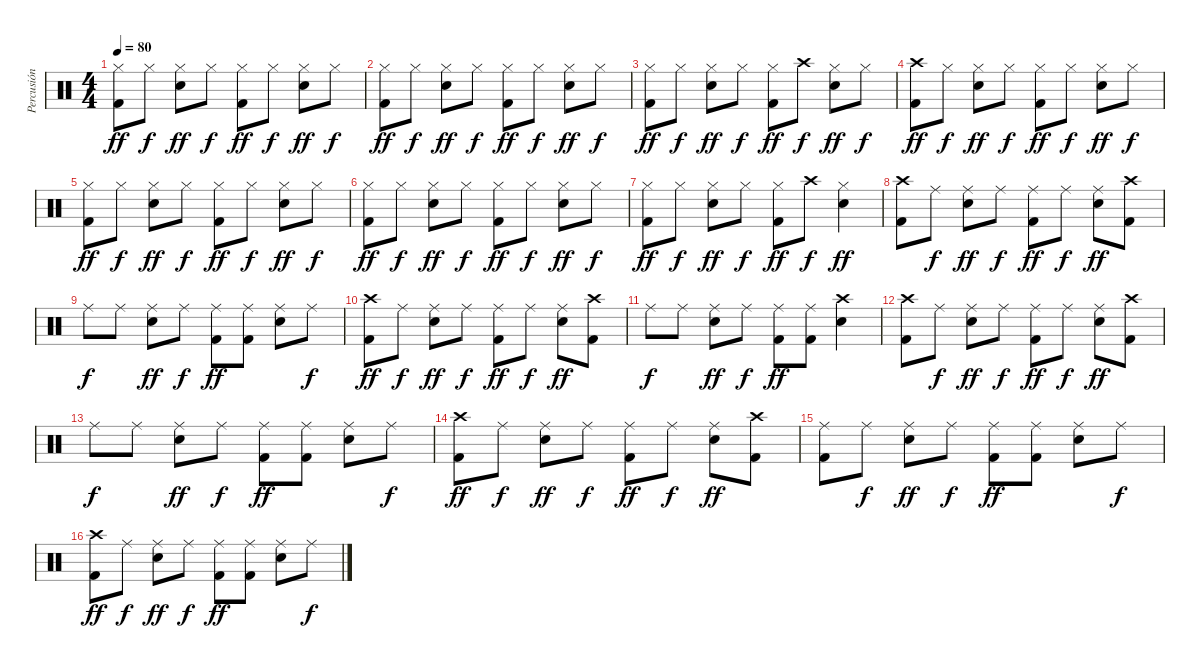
\track ("Percusión" "Percusión") {instrument percussion}
\staff {score}
\articulation defaults
\ts (4 4)
\tempo 80
\clef neutral
\ks c
("Hi-Hat (closed)" "Kick (hit) 2").8{dy ff} "Hi-Hat (closed)".8{dy f} ("Hi-Hat (closed)" "Snare (hit) 2").8{dy ff} "Hi-Hat (closed)".8{dy f} ("Hi-Hat (closed)" "Kick (hit) 2").8{dy ff} "Hi-Hat (closed)".8{dy f} ("Hi-Hat (closed)" "Snare (hit) 2").8{dy ff} "Hi-Hat (closed)".8{dy f} |
("Hi-Hat (closed)" "Kick (hit) 2").8{dy ff} "Hi-Hat (closed)".8{dy f} ("Hi-Hat (closed)" "Snare (hit) 2").8{dy ff} "Hi-Hat (closed)".8{dy f} ("Hi-Hat (closed)" "Kick (hit) 2").8{dy ff} "Hi-Hat (closed)".8{dy f} ("Hi-Hat (closed)" "Snare (hit) 2").8{dy ff} "Hi-Hat (closed)".8{dy f} |
("Hi-Hat (closed)" "Kick (hit) 2").8{dy ff} "Hi-Hat (closed)".8{dy f} ("Hi-Hat (closed)" "Snare (hit) 2").8{dy ff} "Hi-Hat (closed)".8{dy f} ("Hi-Hat (closed)" "Kick (hit) 2").8{dy ff} "Crash high (hit)".8{dy f} ("Hi-Hat (closed)" "Snare (hit) 2").8{dy ff} "Hi-Hat (closed)".8{dy f} |
("Crash high (hit)" "Kick (hit) 2").8{dy ff} "Hi-Hat (closed)".8{dy f} ("Hi-Hat (closed)" "Snare (hit) 2").8{dy ff} "Hi-Hat (closed)".8{dy f} ("Hi-Hat (closed)" "Kick (hit) 2").8{dy ff} "Hi-Hat (closed)".8{dy f} ("Hi-Hat (closed)" "Snare (hit) 2").8{dy ff} "Hi-Hat (closed)".8{dy f} |
("Hi-Hat (closed)" "Kick (hit) 2").8{dy ff} "Hi-Hat (closed)".8{dy f} ("Hi-Hat (closed)" "Snare (hit) 2").8{dy ff} "Hi-Hat (closed)".8{dy f} ("Hi-Hat (closed)" "Kick (hit) 2").8{dy ff} "Hi-Hat (closed)".8{dy f} ("Hi-Hat (closed)" "Snare (hit) 2").8{dy ff} "Hi-Hat (closed)".8{dy f} |
("Hi-Hat (closed)" "Kick (hit) 2").8{dy ff} "Hi-Hat (closed)".8{dy f} ("Hi-Hat (closed)" "Snare (hit) 2").8{dy ff} "Hi-Hat (closed)".8{dy f} ("Hi-Hat (closed)" "Kick (hit) 2").8{dy ff} "Hi-Hat (closed)".8{dy f} ("Hi-Hat (closed)" "Snare (hit) 2").8{dy ff} "Hi-Hat (closed)".8{dy f} |
("Hi-Hat (closed)" "Kick (hit) 2").8{dy ff} "Hi-Hat (closed)".8{dy f} ("Hi-Hat (closed)" "Snare (hit) 2").8{dy ff} "Hi-Hat (closed)".8{dy f} ("Hi-Hat (closed)" "Kick (hit) 2").8{dy ff} "Crash high (hit)".8{dy f} ("Hi-Hat (closed)" "Snare (hit) 2").4{dy ff} |
("Crash high (hit)" "Kick (hit) 2").8 "Ride (middle)".8{dy f} ("Ride (middle)" "Snare (hit) 2").8{dy ff} "Ride (middle)".8{dy f} ("Ride (middle)" "Kick (hit) 2").8{dy ff} "Ride (middle)".8{dy f} ("Ride (middle)" "Snare (hit) 2").8{dy ff} ("Crash high (hit)" "Kick (hit) 2").8 |
"Ride (middle)".8{dy f} "Ride (middle)".8 ("Ride (middle)" "Snare (hit) 2").8{dy ff} "Ride (middle)".8{dy f} ("Ride (middle)" "Kick (hit) 2").8{dy ff} ("Ride (middle)" "Kick (hit) 2").8 ("Ride (middle)" "Snare (hit) 2").8 "Ride (middle)".8{dy f} |
("Crash high (hit)" "Kick (hit) 2").8{dy ff} "Ride (middle)".8{dy f} ("Ride (middle)" "Snare (hit) 2").8{dy ff} "Ride (middle)".8{dy f} ("Ride (middle)" "Kick (hit) 2").8{dy ff} "Ride (middle)".8{dy f} ("Ride (middle)" "Snare (hit) 2").8{dy ff} ("Crash high (hit)" "Kick (hit) 2").8 |
"Ride (middle)".8{dy f} "Ride (middle)".8 ("Ride (middle)" "Snare (hit) 2").8{dy ff} "Ride (middle)".8{dy f} ("Ride (middle)" "Kick (hit) 2").8{dy ff} ("Ride (middle)" "Kick (hit) 2").8 ("Crash high (hit)" "Snare (hit) 2").4 |
("Crash high (hit)" "Kick (hit) 2").8 "Ride (middle)".8{dy f} ("Ride (middle)" "Snare (hit) 2").8{dy ff} "Ride (middle)".8{dy f} ("Ride (middle)" "Kick (hit) 2").8{dy ff} "Ride (middle)".8{dy f} ("Ride (middle)" "Snare (hit) 2").8{dy ff} ("Crash high (hit)" "Kick (hit) 2").8 |
"Ride (middle)".8{dy f} "Ride (middle)".8 ("Ride (middle)" "Snare (hit) 2").8{dy ff} "Ride (middle)".8{dy f} ("Ride (middle)" "Kick (hit) 2").8{dy ff} ("Ride (middle)" "Kick (hit) 2").8 ("Ride (middle)" "Snare (hit) 2").8 "Ride (middle)".8{dy f} |
("Crash high (hit)" "Kick (hit) 2").8{dy ff} "Ride (middle)".8{dy f} ("Ride (middle)" "Snare (hit) 2").8{dy ff} "Ride (middle)".8{dy f} ("Ride (middle)" "Kick (hit) 2").8{dy ff} "Ride (middle)".8{dy f} ("Ride (middle)" "Snare (hit) 2").8{dy ff} ("Crash high (hit)" "Kick (hit) 2").8 |
("Ride (middle)" "Kick (hit) 2").8 "Ride (middle)".8{dy f} ("Ride (middle)" "Snare (hit) 2").8{dy ff} "Ride (middle)".8{dy f} ("Ride (middle)" "Kick (hit) 2").8{dy ff} ("Ride (middle)" "Kick (hit) 2").8 ("Ride (middle)" "Snare (hit) 2").8 "Ride (middle)".8{dy f} |
("Crash high (hit)" "Kick (hit) 2").8{dy ff} "Ride (middle)".8{dy f} ("Ride (middle)" "Snare (hit) 2").8{dy ff} "Ride (middle)".8{dy f} ("Ride (middle)" "Kick (hit) 2").8{dy ff} ("Ride (middle)" "Kick (hit) 2").8 ("Ride (middle)" "Snare (hit) 2").8 "Ride (middle)".8{dy f}
